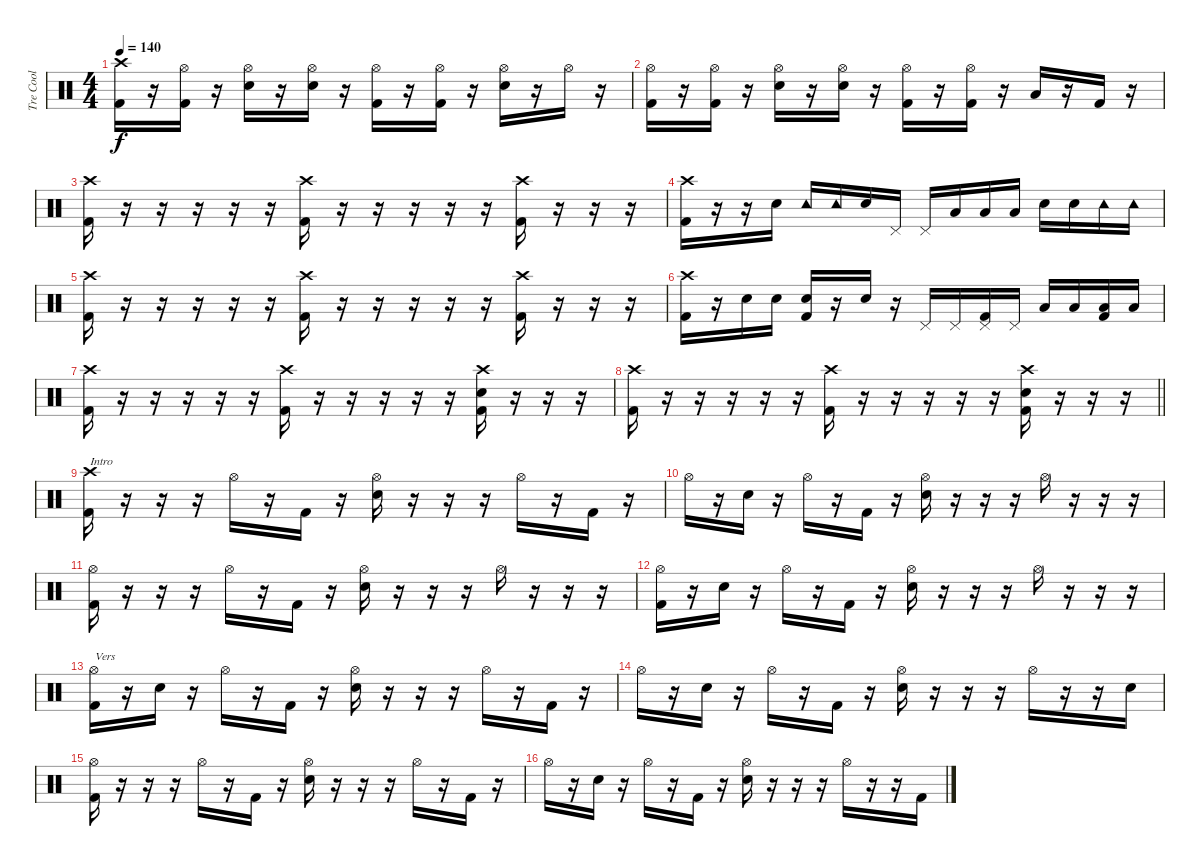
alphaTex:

\track ("Tre Cool" "Tre Cool") {instrument percussion}
\staff {score}
\articulation defaults
\ts (4 4)
\tempo 140
\clef neutral
\ks c
("Crash high (hit)" "Kick (hit) 2").16{dy f} r.16 ("Hi-Hat (open)" "Kick (hit) 2").16 r.16 ("Hi-Hat (open)" "Snare (hit) 2").16 r.16 ("Hi-Hat (open)" "Snare (hit) 2").16 r.16 ("Hi-Hat (open)" "Kick (hit) 2").16 r.16 ("Hi-Hat (open)" "Kick (hit) 2").16 r.16 ("Hi-Hat (open)" "Snare (hit) 2").16 r.16 "Hi-Hat (open)".16 r.16 |
("Hi-Hat (open)" "Kick (hit) 2").16 r.16 ("Hi-Hat (open)" "Kick (hit) 2").16 r.16 ("Hi-Hat (open)" "Snare (hit) 2").16 r.16 ("Hi-Hat (open)" "Snare (hit) 2").16 r.16 ("Hi-Hat (open)" "Kick (hit) 2").16 r.16 ("Hi-Hat (open)" "Kick (hit) 2").16 r.16 "Low Floor Tom (hit)".16 r.16 "Kick (hit) 2".16 r.16 |
("Crash high (hit)" "Kick (hit) 2").16 r.16 r.16 r.16 r.16 r.16 ("Crash high (hit)" "Kick (hit) 2").16 r.16 r.16 r.16 r.16 r.16 ("Crash high (hit)" "Kick (hit) 2").16 r.16 r.16 r.16 |
("Crash high (hit)" "Kick (hit) 2").16 r.16 r.16 "Snare (hit) 2".16 "Tambourine (hit)".16 "Tambourine (hit)".16 "Snare (hit) 2".16 "Pedal Hi-Hat (hit)".16 "Pedal Hi-Hat (hit)".16 "Low Floor Tom (hit)".16 "Low Floor Tom (hit)".16 "Low Floor Tom (hit)".16 "Snare (hit) 2".16 "Snare (hit) 2".16 "Tambourine (hit)".16 "Tambourine (hit)".16 |
("Crash high (hit)" "Kick (hit) 2").16 r.16 r.16 r.16 r.16 r.16 ("Crash high (hit)" "Kick (hit) 2").16 r.16 r.16 r.16 r.16 r.16 ("Crash high (hit)" "Kick (hit) 2").16 r.16 r.16 r.16 |
("Crash high (hit)" "Kick (hit) 2").16 r.16 "Snare (hit) 2".16 "Snare (hit) 2".16 ("Snare (hit) 2" "Kick (hit) 2").16 r.16 "Snare (hit) 2".16 r.16 "Pedal Hi-Hat (hit)".16 "Pedal Hi-Hat (hit)".16 ("Pedal Hi-Hat (hit)" "Kick (hit) 2").16 "Pedal Hi-Hat (hit)".16 "Low Floor Tom (hit)".16 "Low Floor Tom (hit)".16 ("Low Floor Tom (hit)" "Kick (hit) 2").16 "Low Floor Tom (hit)".16 |
("Crash high (hit)" "Kick (hit) 2").16 r.16 r.16 r.16 r.16 r.16 ("Crash high (hit)" "Kick (hit) 2").16 r.16 r.16 r.16 r.16 r.16 ("Crash high (hit)" "Snare (hit) 2" "Kick (hit) 2").16 r.16 r.16 r.16 |
\barLineRight lightlight
("Crash high (hit)" "Kick (hit) 2").16 r.16 r.16 r.16 r.16 r.16 ("Crash high (hit)" "Kick (hit) 2").16 r.16 r.16 r.16 r.16 r.16 ("Crash high (hit)" "Snare (hit) 2" "Kick (hit) 2").16 r.16 r.16 r.16 |
("Crash high (hit)" "Kick (hit) 2").16{txt "Intro"} r.16 r.16 r.16 "Hi-Hat (open)".16 r.16 "Kick (hit) 2".16 r.16 ("Hi-Hat (open)" "Snare (hit) 2").16 r.16 r.16 r.16 "Hi-Hat (open)".16 r.16 "Kick (hit) 2".16 r.16 |
"Hi-Hat (open)".16 r.16 "Snare (hit) 2".16 r.16 "Hi-Hat (open)".16 r.16 "Kick (hit) 2".16 r.16 ("Hi-Hat (open)" "Snare (hit) 2").16 r.16 r.16 r.16 "Hi-Hat (open)".16 r.16 r.16 r.16 |
("Hi-Hat (open)" "Kick (hit) 2").16 r.16 r.16 r.16 "Hi-Hat (open)".16 r.16 "Kick (hit) 2".16 r.16 ("Hi-Hat (open)" "Snare (hit) 2").16 r.16 r.16 r.16 "Hi-Hat (open)".16 r.16 r.16 r.16 |
("Hi-Hat (open)" "Kick (hit) 2").16 r.16 "Snare (hit) 2".16 r.16 "Hi-Hat (open)".16 r.16 "Kick (hit) 2".16 r.16 ("Hi-Hat (open)" "Snare (hit) 2").16 r.16 r.16 r.16 "Hi-Hat (open)".16 r.16 r.16 r.16 |
("Hi-Hat (open)" "Kick (hit) 2").16{txt "Vers"} r.16 "Snare (hit) 2".16 r.16 "Hi-Hat (open)".16 r.16 "Kick (hit) 2".16 r.16 ("Hi-Hat (open)" "Snare (hit) 2").16 r.16 r.16 r.16 "Hi-Hat (open)".16 r.16 "Kick (hit) 2".16 r.16 |
"Hi-Hat (open)".16 r.16 "Snare (hit) 2".16 r.16 "Hi-Hat (open)".16 r.16 "Kick (hit) 2".16 r.16 ("Hi-Hat (open)" "Snare (hit) 2").16 r.16 r.16 r.16 "Hi-Hat (open)".16 r.16 r.16 "Snare (hit) 2".16 |
("Hi-Hat (open)" "Kick (hit) 2").16 r.16 r.16 r.16 "Hi-Hat (open)".16 r.16 "Kick (hit) 2".16 r.16 ("Hi-Hat (open)" "Snare (hit) 2").16 r.16 r.16 r.16 "Hi-Hat (open)".16 r.16 "Kick (hit) 2".16 r.16 |
"Hi-Hat (open)".16 r.16 "Snare (hit) 2".16 r.16 "Hi-Hat (open)".16 r.16 "Kick (hit) 2".16 r.16 ("Hi-Hat (open)" "Snare (hit) 2").16 r.16 r.16 r.16 "Hi-Hat (open)".16 r.16 r.16 "Kick (hit) 2".16
